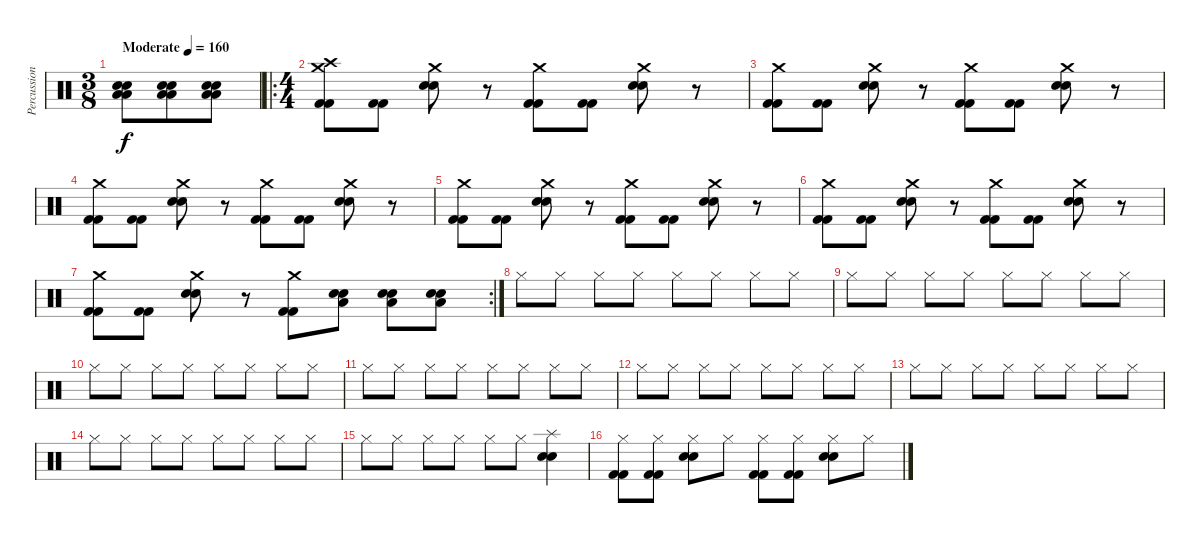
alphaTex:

\track ("Percussion" "Percussion") {instrument percussion}
\staff {score}
\articulation defaults
\ts (3 8)
\tempo (160 "Moderate")
\clef neutral
\ks c
("Low Floor Tom (hit)" "Low Floor Tom (hit)" "Snare (hit) 2" "Snare (hit) 2").8{dy f} ("Low Floor Tom (hit)" "Low Floor Tom (hit)" "Snare (hit) 2" "Snare (hit) 2").8 ("Low Floor Tom (hit)" "Low Floor Tom (hit)" "Snare (hit) 2" "Snare (hit) 2").8 |
\ro
\ts (4 4)
("Crash medium (hit)" "Crash high (hit)" "Kick (hit) 2" "Kick (hit) 2").8 ("Kick (hit) 2" "Kick (hit) 2").8 ("Crash medium (hit)" "Snare (hit) 2" "Snare (hit) 2").8 r.8 ("Crash medium (hit)" "Kick (hit) 2" "Kick (hit) 2").8 ("Kick (hit) 2" "Kick (hit) 2").8 ("Crash medium (hit)" "Snare (hit) 2" "Snare (hit) 2").8 r.8 |
("Crash medium (hit)" "Kick (hit) 2" "Kick (hit) 2").8 ("Kick (hit) 2" "Kick (hit) 2").8 ("Crash medium (hit)" "Snare (hit) 2" "Snare (hit) 2").8 r.8 ("Crash medium (hit)" "Kick (hit) 2" "Kick (hit) 2").8 ("Kick (hit) 2" "Kick (hit) 2").8 ("Crash medium (hit)" "Snare (hit) 2" "Snare (hit) 2").8 r.8 |
("Crash medium (hit)" "Kick (hit) 2" "Kick (hit) 2").8 ("Kick (hit) 2" "Kick (hit) 2").8 ("Crash medium (hit)" "Snare (hit) 2" "Snare (hit) 2").8 r.8 ("Crash medium (hit)" "Kick (hit) 2" "Kick (hit) 2").8 ("Kick (hit) 2" "Kick (hit) 2").8 ("Crash medium (hit)" "Snare (hit) 2" "Snare (hit) 2").8 r.8 |
("Crash medium (hit)" "Kick (hit) 2" "Kick (hit) 2").8 ("Kick (hit) 2" "Kick (hit) 2").8 ("Crash medium (hit)" "Snare (hit) 2" "Snare (hit) 2").8 r.8 ("Crash medium (hit)" "Kick (hit) 2" "Kick (hit) 2").8 ("Kick (hit) 2" "Kick (hit) 2").8 ("Crash medium (hit)" "Snare (hit) 2" "Snare (hit) 2").8 r.8 |
("Crash medium (hit)" "Kick (hit) 2" "Kick (hit) 2").8 ("Kick (hit) 2" "Kick (hit) 2").8 ("Crash medium (hit)" "Snare (hit) 2" "Snare (hit) 2").8 r.8 ("Crash medium (hit)" "Kick (hit) 2" "Kick (hit) 2").8 ("Kick (hit) 2" "Kick (hit) 2").8 ("Crash medium (hit)" "Snare (hit) 2" "Snare (hit) 2").8 r.8 |
\rc 2
("Crash medium (hit)" "Kick (hit) 2" "Kick (hit) 2").8 ("Kick (hit) 2" "Kick (hit) 2").8 ("Crash medium (hit)" "Snare (hit) 2" "Snare (hit) 2").8 r.8 ("Crash medium (hit)" "Kick (hit) 2" "Kick (hit) 2").8 ("Low Floor Tom (hit)" "Snare (hit) 2" "Snare (hit) 2").8 ("Low Floor Tom (hit)" "Snare (hit) 2" "Snare (hit) 2").8 ("Low Floor Tom (hit)" "Snare (hit) 2" "Snare (hit) 2").8 |
"Hi-Hat (closed)".8 "Hi-Hat (closed)".8 "Hi-Hat (closed)".8 "Hi-Hat (closed)".8 "Hi-Hat (closed)".8 "Hi-Hat (closed)".8 "Hi-Hat (closed)".8 "Hi-Hat (closed)".8 |
"Hi-Hat (closed)".8 "Hi-Hat (closed)".8 "Hi-Hat (closed)".8 "Hi-Hat (closed)".8 "Hi-Hat (closed)".8 "Hi-Hat (closed)".8 "Hi-Hat (closed)".8 "Hi-Hat (closed)".8 |
"Hi-Hat (closed)".8 "Hi-Hat (closed)".8 "Hi-Hat (closed)".8 "Hi-Hat (closed)".8 "Hi-Hat (closed)".8 "Hi-Hat (closed)".8 "Hi-Hat (closed)".8 "Hi-Hat (closed)".8 |
"Hi-Hat (closed)".8 "Hi-Hat (closed)".8 "Hi-Hat (closed)".8 "Hi-Hat (closed)".8 "Hi-Hat (closed)".8 "Hi-Hat (closed)".8 "Hi-Hat (closed)".8 "Hi-Hat (closed)".8 |
"Hi-Hat (closed)".8 "Hi-Hat (closed)".8 "Hi-Hat (closed)".8 "Hi-Hat (closed)".8 "Hi-Hat (closed)".8 "Hi-Hat (closed)".8 "Hi-Hat (closed)".8 "Hi-Hat (closed)".8 |
"Hi-Hat (closed)".8 "Hi-Hat (closed)".8 "Hi-Hat (closed)".8 "Hi-Hat (closed)".8 "Hi-Hat (closed)".8 "Hi-Hat (closed)".8 "Hi-Hat (closed)".8 "Hi-Hat (closed)".8 |
"Hi-Hat (closed)".8 "Hi-Hat (closed)".8 "Hi-Hat (closed)".8 "Hi-Hat (closed)".8 "Hi-Hat (closed)".8 "Hi-Hat (closed)".8 "Hi-Hat (closed)".8 "Hi-Hat (closed)".8 |
"Hi-Hat (closed)".8 "Hi-Hat (closed)".8 "Hi-Hat (closed)".8 "Hi-Hat (closed)".8 "Hi-Hat (closed)".8 "Hi-Hat (closed)".8 ("Splash (hit)" "Snare (hit) 2" "Snare (hit) 2").4 |
("Hi-Hat (closed)" "Kick (hit) 2" "Kick (hit) 2").8 ("Hi-Hat (closed)" "Kick (hit) 2" "Kick (hit) 2").8 ("Hi-Hat (closed)" "Snare (hit) 2" "Snare (hit) 2").8 "Hi-Hat (closed)".8 ("Hi-Hat (closed)" "Kick (hit) 2" "Kick (hit) 2").8 ("Hi-Hat (closed)" "Kick (hit) 2" "Kick (hit) 2").8 ("Hi-Hat (closed)" "Snare (hit) 2" "Snare (hit) 2").8 "Hi-Hat (closed)".8
